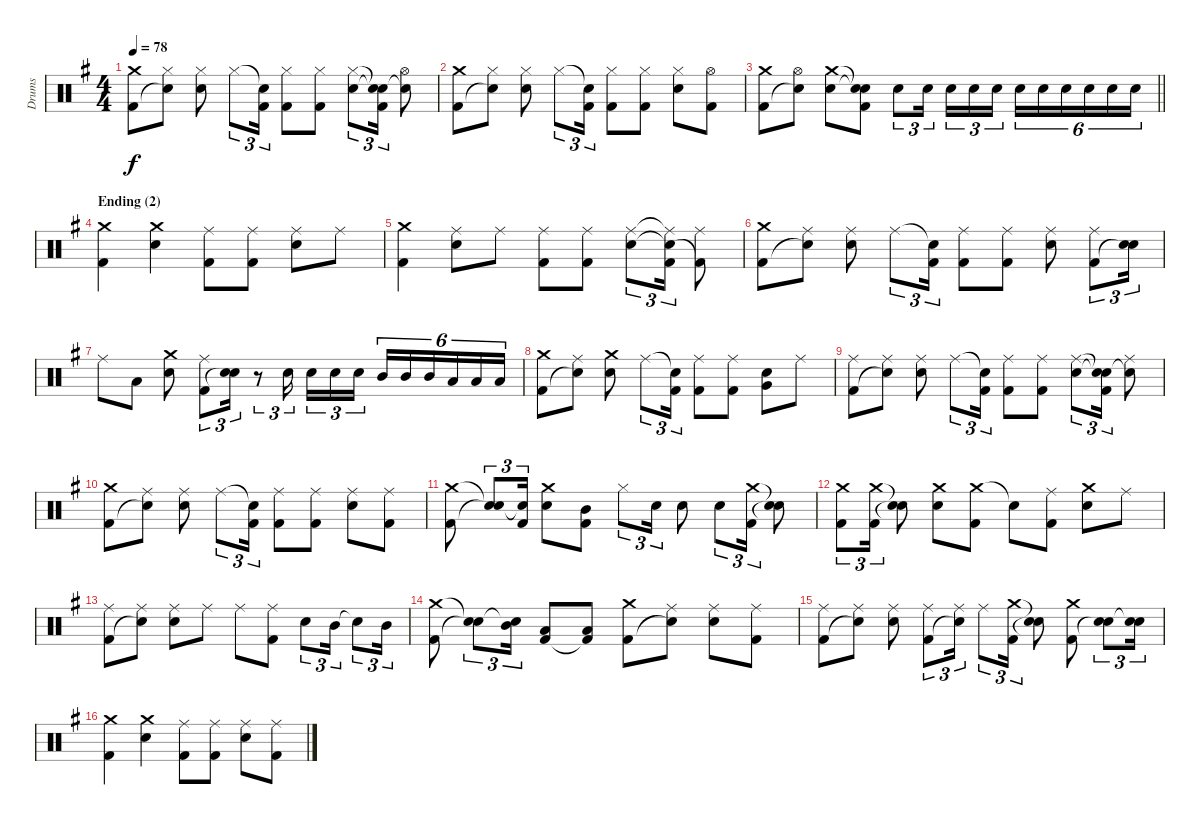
\track ("Drums" "Drums") {instrument percussion}
\staff {score}
\articulation defaults
\ts (4 4)
\tempo 78
\clef neutral
\ks g
("Crash medium (hit)" "Kick (hit) 2").8{dy f} ("Hi-Hat (closed)" "Snare (hit)"{t}).8 ("Hi-Hat (closed)" "Electric Snare (hit)").8 "Hi-Hat (closed)".8{tu (3 2)} ("Snare (hit)"{t} "Kick (hit) 2").16{tu (3 2)} ("Hi-Hat (closed)" "Kick (hit) 2").8 ("Hi-Hat (closed)" "Kick (hit) 2").8 ("Hi-Hat (closed)" "Electric Snare (hit)").8{tu (3 2)} ("Snare (hit)"{t} "Snare (hit)"{t} "Kick (hit) 2").16{tu (3 2)} ("Hi-Hat (open)" "Snare (hit)"{t}).8 |
("Crash medium (hit)" "Kick (hit) 2").8 ("Hi-Hat (closed)" "Snare (hit)"{t}).8 ("Hi-Hat (closed)" "Electric Snare (hit)").8 "Hi-Hat (closed)".8{tu (3 2)} ("Snare (hit)"{t} "Kick (hit) 2").16{tu (3 2)} ("Hi-Hat (closed)" "Kick (hit) 2").8 ("Hi-Hat (closed)" "Kick (hit) 2").8 ("Hi-Hat (closed)" "Electric Snare (hit)").8 ("Hi-Hat (open)" "Kick (hit) 2").8 |
\barLineRight lightlight
("Crash medium (hit)" "Kick (hit) 2").8 ("Hi-Hat (open)" "Snare (hit)"{t}).8 ("Crash medium (hit)" "Electric Snare (hit)").8 ("Snare (hit)"{t} "Snare (hit)"{t} "Kick (hit) 2").8 "Electric Snare (hit)".8{tu (3 2)} "Electric Snare (hit)".16{tu (3 2)} "Electric Snare (hit)".16{tu (3 2)} "Electric Snare (hit)".16{tu (3 2)} "Electric Snare (hit)".16{tu (3 2)} "Electric Snare (hit)".16{tu (6 4)} "Electric Snare (hit)".16{tu (6 4)} "Electric Snare (hit)".16{tu (6 4)} "Electric Snare (hit)".16{tu (6 4)} "Electric Snare (hit)".16{tu (6 4)} "Electric Snare (hit)".16{tu (6 4)} |
\section ("" "Ending (2)")
("Crash medium (hit)" "Kick (hit) 2").4 ("Crash medium (hit)" "Electric Snare (hit)").4 ("Ride (middle)" "Kick (hit) 2").8 ("Ride (middle)" "Kick (hit) 2").8 ("Ride (middle)" "Electric Snare (hit)").8 "Ride (middle)".8 |
("Crash medium (hit)" "Kick (hit) 2").4 ("Ride (middle)" "Electric Snare (hit)").8 "Ride (middle)".8 ("Ride (middle)" "Kick (hit) 2").8 ("Ride (middle)" "Kick (hit) 2").8 ("Ride (middle)" "Electric Snare (hit)").8{tu (3 2)} ("Ride (middle)"{t} "Snare (hit)"{t} "Kick (hit) 2").16{tu (3 2)} ("Ride (middle)" "Kick (hit) 2"{t}).8 |
("Crash medium (hit)" "Kick (hit) 2").8 ("Ride (middle)" "Snare (hit)"{t}).8 ("Ride (middle)" "Electric Snare (hit)").8 "Ride (middle)".8{tu (3 2)} ("Snare (hit)"{t} "Kick (hit) 2").16{tu (3 2)} ("Ride (middle)" "Kick (hit) 2").8 ("Ride (middle)" "Kick (hit) 2").8 ("Ride (middle)" "Electric Snare (hit)").8 ("Ride (middle)" "Kick (hit) 2").8{tu (3 2)} ("Electric Snare (hit)" "Snare (hit)"{t}).16{tu (3 2)} |
"Ride (middle)".8 "Low Tom (hit)".8 ("Crash medium (hit)" "Electric Snare (hit)").8 ("Ride (middle)" "Kick (hit) 2").8{tu (3 2)} ("Electric Snare (hit)" "Snare (hit)"{t}).16{tu (3 2)} r.8{tu (3 2)} "Electric Snare (hit)".16{tu (3 2)} "Electric Snare (hit)".16{tu (3 2)} "Electric Snare (hit)".16{tu (3 2)} "Electric Snare (hit)".16{tu (3 2)} "Mid Tom (hit)".16{tu (6 4)} "Mid Tom (hit)".16{tu (6 4)} "Mid Tom (hit)".16{tu (6 4)} "Low Tom (hit)".16{tu (6 4)} "Low Tom (hit)".16{tu (6 4)} "Low Tom (hit)".16{tu (6 4)} |
("Crash medium (hit)" "Kick (hit) 2").8 ("Ride (middle)" "Snare (hit)"{t}).8 ("Crash medium (hit)" "Electric Snare (hit)").8 "Ride (middle)".8{tu (3 2)} ("Snare (hit)"{t} "Kick (hit) 2").16{tu (3 2)} ("Ride (middle)" "Kick (hit) 2").8 ("Ride (middle)" "Kick (hit) 2").8 ("Electric Snare (hit)" "Very Low Tom (hit)").8 "Ride (middle)".8 |
("Ride (middle)" "Kick (hit) 2").8 ("Ride (middle)" "Snare (hit)"{t}).8 ("Ride (middle)" "Electric Snare (hit)").8 "Ride (middle)".8{tu (3 2)} ("Snare (hit)"{t} "Kick (hit) 2").16{tu (3 2)} ("Ride (middle)" "Kick (hit) 2").8 ("Ride (middle)" "Kick (hit) 2").8 ("Ride (middle)" "Electric Snare (hit)").8{tu (3 2)} ("Snare (hit)"{t} "Snare (hit)"{t} "Kick (hit) 2").16{tu (3 2)} ("Ride (middle)" "Snare (hit)"{t}).8 |
("Crash medium (hit)" "Kick (hit) 2").8 ("Ride (middle)" "Snare (hit)"{t}).8 ("Ride (middle)" "Electric Snare (hit)").8 "Ride (middle)".8{tu (3 2)} ("Snare (hit)"{t} "Kick (hit) 2").16{tu (3 2)} ("Ride (middle)" "Kick (hit) 2").8 ("Ride (middle)" "Kick (hit) 2").8 ("Ride (middle)" "Electric Snare (hit)").8 ("Ride (middle)" "Kick (hit) 2").8 |
("Crash medium (hit)" "Kick (hit) 2").8 ("Snare (hit)"{t} "Snare (hit)"{t}).8{tu (3 2)} ("Snare (hit)"{t} "Kick (hit) 2").16{tu (3 2)} ("Crash medium (hit)" "Electric Snare (hit)").8 ("Mid Tom (hit)" "Kick (hit) 2").8 "Hi-Hat (closed)".8{tu (3 2)} "Electric Snare (hit)".16{tu (3 2)} "Electric Snare (hit)".8 "Electric Snare (hit)".8{tu (3 2)} ("Crash medium (hit)" "Kick (hit) 2").16{tu (3 2)} ("Snare (hit)"{t} "Snare (hit)"{t}).8 |
("Crash medium (hit)" "Kick (hit) 2").8{tu (3 2)} ("Crash medium (hit)" "Kick (hit) 2").16{tu (3 2)} ("Snare (hit)"{t} "Snare (hit)"{t}).8 ("Crash medium (hit)" "Electric Snare (hit)").8 ("Crash medium (hit)" "Kick (hit) 2").8 "Snare (hit)"{t}.8 ("Ride (middle)" "Kick (hit) 2").8 ("Crash medium (hit)" "Electric Snare (hit)").8 "Ride (middle)".8 |
("Ride (middle)" "Kick (hit) 2").8 ("Ride (middle)" "Snare (hit)"{t}).8 ("Ride (middle)" "Electric Snare (hit)").8 "Ride (middle)".8 "Ride (middle)".8 ("Ride (middle)" "Kick (hit) 2").8 "Electric Snare (hit)".8{tu (3 2)} "Mid Tom (hit)".16{tu (3 2)} "Snare (hit)"{t}.8{tu (3 2)} "Mid Tom (hit)".16{tu (3 2)} |
("Crash medium (hit)" "Kick (hit) 2").8 ("Snare (hit)"{t} "Snare (hit)"{t}).8{tu (3 2)} ("Mid Tom (hit)" "Snare (hit)"{t}).16{tu (3 2)} ("Low Tom (hit)" "Kick (hit) 2").8 ("Low Tom (hit)" "Kick (hit) 2"{t}).8 ("Crash medium (hit)" "Kick (hit) 2").8 ("Ride (middle)" "Snare (hit)"{t}).8 ("Ride (middle)" "Electric Snare (hit)").8 ("Ride (middle)" "Kick (hit) 2").8 |
("Ride (middle)" "Kick (hit) 2").8 ("Ride (middle)" "Snare (hit)"{t}).8 ("Ride (middle)" "Electric Snare (hit)").8 ("Ride (middle)" "Kick (hit) 2").8{tu (3 2)} ("Ride (middle)" "Snare (hit)"{t}).16{tu (3 2)} "Ride (middle)".8{tu (3 2)} ("Crash medium (hit)" "Kick (hit) 2").16{tu (3 2)} ("Snare (hit)"{t} "Snare (hit)"{t}).8 ("Crash medium (hit)" "Kick (hit) 2").8 ("Electric Snare (hit)" "Snare (hit)"{t}).8{tu (3 2)} ("Electric Snare (hit)" "Snare (hit)"{t}).16{tu (3 2)} |
("Crash medium (hit)" "Kick (hit) 2").4 ("Crash medium (hit)" "Electric Snare (hit)").4 ("Ride (middle)" "Kick (hit) 2").8 ("Ride (middle)" "Kick (hit) 2").8 ("Ride (middle)" "Electric Snare (hit)").8 ("Ride (middle)" "Kick (hit) 2").8
